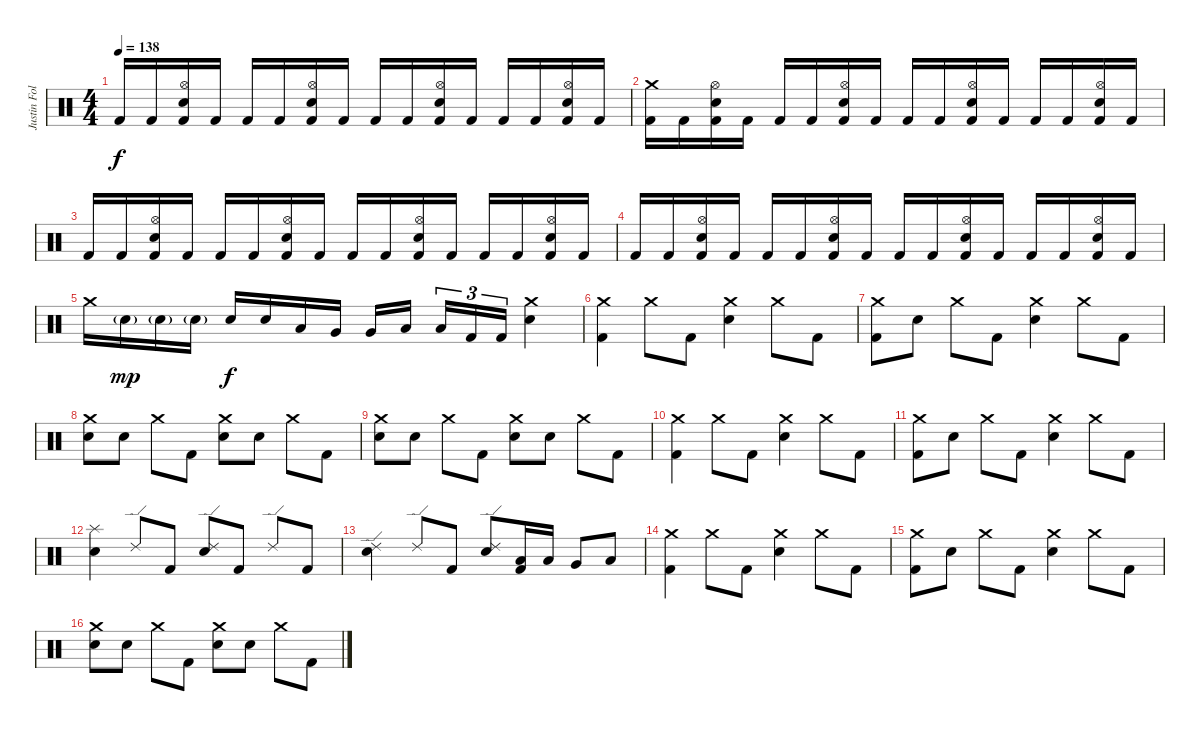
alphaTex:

\track ("Justin Foley" "Justin Fol") {instrument percussion}
\staff {score}
\articulation defaults
\ts (4 4)
\tempo 138
\clef neutral
\ks c "Kick (hit) 2".16{dy f} "Kick (hit) 2".16
("Hi-Hat (open)" "Electric Snare (hit)" "Kick (hit) 2").16 "Kick (hit) 2".16 "Kick (hit) 2".16 "Kick (hit) 2".16 ("Hi-Hat (open)" "Electric Snare (hit)" "Kick (hit) 2").16 "Kick (hit) 2".16 "Kick (hit) 2".16 "Kick (hit) 2".16 ("Hi-Hat (open)" "Electric Snare (hit)" "Kick (hit) 2").16 "Kick (hit) 2".16 "Kick (hit) 2".16 "Kick (hit) 2".16 ("Hi-Hat (open)" "Electric Snare (hit)" "Kick (hit) 2").16 "Kick (hit) 2".16 |
("Crash medium (hit)" "Kick (hit) 2").16 "Kick (hit) 2".16 ("Hi-Hat (open)" "Electric Snare (hit)" "Kick (hit) 2").16 "Kick (hit) 2".16 "Kick (hit) 2".16 "Kick (hit) 2".16 ("Hi-Hat (open)" "Electric Snare (hit)" "Kick (hit) 2").16 "Kick (hit) 2".16 "Kick (hit) 2".16 "Kick (hit) 2".16 ("Hi-Hat (open)" "Electric Snare (hit)" "Kick (hit) 2").16 "Kick (hit) 2".16 "Kick (hit) 2".16 "Kick (hit) 2".16 ("Hi-Hat (open)" "Electric Snare (hit)" "Kick (hit) 2").16 "Kick (hit) 2".16 |
"Kick (hit) 2".16 "Kick (hit) 2".16 ("Hi-Hat (open)" "Electric Snare (hit)" "Kick (hit) 2").16 "Kick (hit) 2".16 "Kick (hit) 2".16 "Kick (hit) 2".16 ("Hi-Hat (open)" "Electric Snare (hit)" "Kick (hit) 2").16 "Kick (hit) 2".16 "Kick (hit) 2".16 "Kick (hit) 2".16 ("Hi-Hat (open)" "Electric Snare (hit)" "Kick (hit) 2").16 "Kick (hit) 2".16 "Kick (hit) 2".16 "Kick (hit) 2".16 ("Hi-Hat (open)" "Electric Snare (hit)" "Kick (hit) 2").16 "Kick (hit) 2".16 |
"Kick (hit) 2".16 "Kick (hit) 2".16 ("Hi-Hat (open)" "Electric Snare (hit)" "Kick (hit) 2").16 "Kick (hit) 2".16 "Kick (hit) 2".16 "Kick (hit) 2".16 ("Hi-Hat (open)" "Electric Snare (hit)" "Kick (hit) 2").16 "Kick (hit) 2".16 "Kick (hit) 2".16 "Kick (hit) 2".16 ("Hi-Hat (open)" "Electric Snare (hit)" "Kick (hit) 2").16 "Kick (hit) 2".16 "Kick (hit) 2".16 "Kick (hit) 2".16 ("Hi-Hat (open)" "Electric Snare (hit)" "Kick (hit) 2").16 "Kick (hit) 2".16 |
"Crash medium (hit)".16 "Electric Snare (hit)"{g}.16{dy mp} "Electric Snare (hit)"{g}.16 "Electric Snare (hit)"{g}.16 "Electric Snare (hit)".16{dy f} "Electric Snare (hit)".16 "Low Tom (hit)".16 "Very Low Tom (hit)".16 "Very Low Tom (hit)".16 "Low Floor Tom (hit)".16{beam splitsecondary} "Low Floor Tom (hit)".16{tu (3 2)} "Kick (hit) 2".16{tu (3 2)} "Kick (hit) 2".16{tu (3 2)} ("Crash medium (hit)" "Electric Snare (hit)").4 |
("Crash medium (hit)" "Kick (hit) 2").4 "Crash medium (hit)".8 "Kick (hit) 2".8 ("Crash medium (hit)" "Electric Snare (hit)").4 "Crash medium (hit)".8 "Kick (hit) 2".8 |
("Crash medium (hit)" "Kick (hit) 2").8 "Electric Snare (hit)".8 "Crash medium (hit)".8 "Kick (hit) 2".8 ("Crash medium (hit)" "Electric Snare (hit)").4 "Crash medium (hit)".8 "Kick (hit) 2".8 |
("Crash medium (hit)" "Electric Snare (hit)").8 "Electric Snare (hit)".8 "Crash medium (hit)".8 "Kick (hit) 2".8 ("Crash medium (hit)" "Electric Snare (hit)").8 "Electric Snare (hit)".8 "Crash medium (hit)".8 "Kick (hit) 2".8 |
("Crash medium (hit)" "Electric Snare (hit)").8 "Electric Snare (hit)".8 "Crash medium (hit)".8 "Kick (hit) 2".8 ("Crash medium (hit)" "Electric Snare (hit)").8 "Electric Snare (hit)".8 "Crash medium (hit)".8 "Kick (hit) 2".8 |
("Crash medium (hit)" "Kick (hit) 2").4 "Crash medium (hit)".8 "Kick (hit) 2".8 ("Crash medium (hit)" "Electric Snare (hit)").4 "Crash medium (hit)".8 "Kick (hit) 2".8 |
("Crash medium (hit)" "Kick (hit) 2").8 "Electric Snare (hit)".8 "Crash medium (hit)".8 "Kick (hit) 2".8 ("Crash medium (hit)" "Electric Snare (hit)").4 "Crash medium (hit)".8 "Kick (hit) 2".8 |
("Splash (hit)" "Electric Snare (hit)").4 "Ride (edge) 2".8 "Kick (hit) 2".8 ("Ride (edge) 2" "Electric Snare (hit)").8 "Kick (hit) 2".8 "Ride (edge) 2".8 "Kick (hit) 2".8 |
("Ride (edge) 2" "Electric Snare (hit)").4 "Ride (edge) 2".8 "Kick (hit) 2".8 ("Ride (edge) 2" "Electric Snare (hit)").8 ("Low Tom (hit)" "Kick (hit) 2").16 "Low Tom (hit)".16 "Very Low Tom (hit)".8 "Low Floor Tom (hit)".8 |
("Crash medium (hit)" "Kick (hit) 2").4 "Crash medium (hit)".8 "Kick (hit) 2".8 ("Crash medium (hit)" "Electric Snare (hit)").4 "Crash medium (hit)".8 "Kick (hit) 2".8 |
("Crash medium (hit)" "Kick (hit) 2").8 "Electric Snare (hit)".8 "Crash medium (hit)".8 "Kick (hit) 2".8 ("Crash medium (hit)" "Electric Snare (hit)").4 "Crash medium (hit)".8 "Kick (hit) 2".8 |
("Crash medium (hit)" "Electric Snare (hit)").8 "Electric Snare (hit)".8 "Crash medium (hit)".8 "Kick (hit) 2".8 ("Crash medium (hit)" "Electric Snare (hit)").8 "Electric Snare (hit)".8 "Crash medium (hit)".8 "Kick (hit) 2".8
